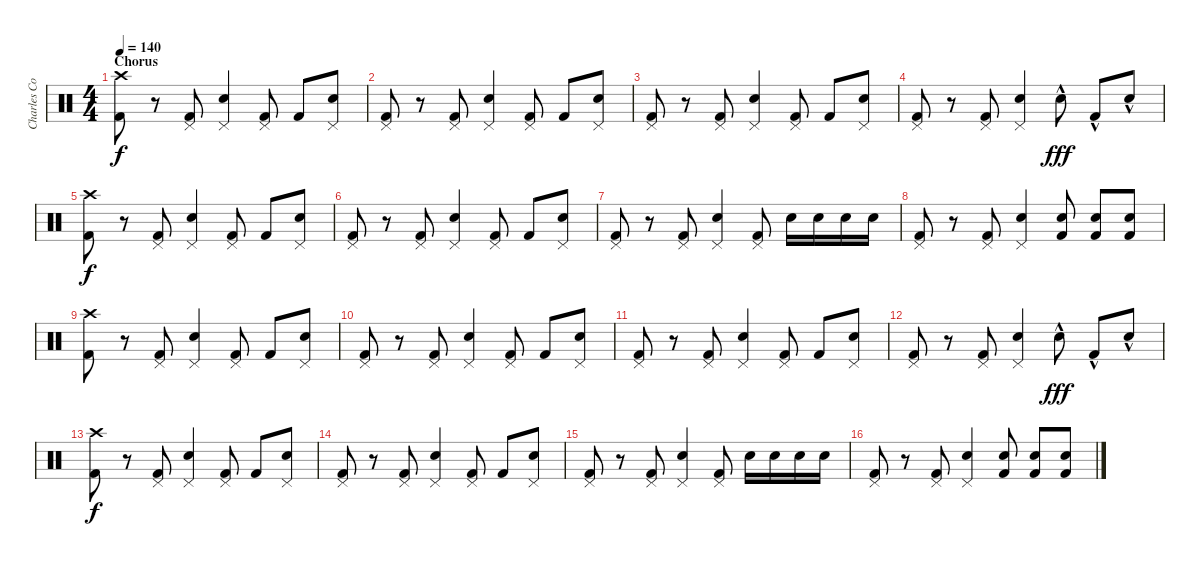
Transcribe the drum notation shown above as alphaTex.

\track ("Charles Comeau" "Charles Co") {instrument percussion}
\staff {score}
\articulation defaults
\ts (4 4)
\section ("" "Chorus")
\tempo 140
\clef neutral
\ks c
("Crash high (hit)" "Kick (hit) 2").8{dy f} r.8 ("Pedal Hi-Hat (hit)" "Kick (hit) 2").8 ("Pedal Hi-Hat (hit)" "Snare (hit) 2").4 ("Pedal Hi-Hat (hit)" "Kick (hit) 2").8 "Kick (hit) 2".8 ("Pedal Hi-Hat (hit)" "Snare (hit) 2").8 |
("Pedal Hi-Hat (hit)" "Kick (hit) 2").8 r.8 ("Pedal Hi-Hat (hit)" "Kick (hit) 2").8 ("Pedal Hi-Hat (hit)" "Snare (hit) 2").4 ("Pedal Hi-Hat (hit)" "Kick (hit) 2").8 "Kick (hit) 2".8 ("Pedal Hi-Hat (hit)" "Snare (hit) 2").8 |
("Pedal Hi-Hat (hit)" "Kick (hit) 2").8 r.8 ("Pedal Hi-Hat (hit)" "Kick (hit) 2").8 ("Pedal Hi-Hat (hit)" "Snare (hit) 2").4 ("Pedal Hi-Hat (hit)" "Kick (hit) 2").8 "Kick (hit) 2".8 ("Pedal Hi-Hat (hit)" "Snare (hit) 2").8 |
("Pedal Hi-Hat (hit)" "Kick (hit) 2").8 r.8 ("Pedal Hi-Hat (hit)" "Kick (hit) 2").8 ("Pedal Hi-Hat (hit)" "Snare (hit) 2").4 "Snare (hit) 2"{hac}.8{dy fff} "Kick (hit) 2"{hac}.8 "Snare (hit) 2"{hac}.8 |
("Crash high (hit)" "Kick (hit) 2").8{dy f} r.8 ("Pedal Hi-Hat (hit)" "Kick (hit) 2").8 ("Pedal Hi-Hat (hit)" "Snare (hit) 2").4 ("Pedal Hi-Hat (hit)" "Kick (hit) 2").8 "Kick (hit) 2".8 ("Pedal Hi-Hat (hit)" "Snare (hit) 2").8 |
("Pedal Hi-Hat (hit)" "Kick (hit) 2").8 r.8 ("Pedal Hi-Hat (hit)" "Kick (hit) 2").8 ("Pedal Hi-Hat (hit)" "Snare (hit) 2").4 ("Pedal Hi-Hat (hit)" "Kick (hit) 2").8 "Kick (hit) 2".8 ("Pedal Hi-Hat (hit)" "Snare (hit) 2").8 |
("Pedal Hi-Hat (hit)" "Kick (hit) 2").8 r.8 ("Pedal Hi-Hat (hit)" "Kick (hit) 2").8 ("Pedal Hi-Hat (hit)" "Snare (hit) 2").4 ("Pedal Hi-Hat (hit)" "Kick (hit) 2").8 "Snare (hit) 2".16 "Snare (hit) 2".16 "Snare (hit) 2".16 "Snare (hit) 2".16 |
("Pedal Hi-Hat (hit)" "Kick (hit) 2").8 r.8 ("Pedal Hi-Hat (hit)" "Kick (hit) 2").8 ("Pedal Hi-Hat (hit)" "Snare (hit) 2").4 ("Snare (hit) 2" "Kick (hit) 2").8 ("Snare (hit) 2" "Kick (hit) 2").8 ("Snare (hit) 2" "Kick (hit) 2").8 |
("Crash high (hit)" "Kick (hit) 2").8 r.8 ("Pedal Hi-Hat (hit)" "Kick (hit) 2").8 ("Pedal Hi-Hat (hit)" "Snare (hit) 2").4 ("Pedal Hi-Hat (hit)" "Kick (hit) 2").8 "Kick (hit) 2".8 ("Pedal Hi-Hat (hit)" "Snare (hit) 2").8 |
("Pedal Hi-Hat (hit)" "Kick (hit) 2").8 r.8 ("Pedal Hi-Hat (hit)" "Kick (hit) 2").8 ("Pedal Hi-Hat (hit)" "Snare (hit) 2").4 ("Pedal Hi-Hat (hit)" "Kick (hit) 2").8 "Kick (hit) 2".8 ("Pedal Hi-Hat (hit)" "Snare (hit) 2").8 |
("Pedal Hi-Hat (hit)" "Kick (hit) 2").8 r.8 ("Pedal Hi-Hat (hit)" "Kick (hit) 2").8 ("Pedal Hi-Hat (hit)" "Snare (hit) 2").4 ("Pedal Hi-Hat (hit)" "Kick (hit) 2").8 "Kick (hit) 2".8 ("Pedal Hi-Hat (hit)" "Snare (hit) 2").8 |
("Pedal Hi-Hat (hit)" "Kick (hit) 2").8 r.8 ("Pedal Hi-Hat (hit)" "Kick (hit) 2").8 ("Pedal Hi-Hat (hit)" "Snare (hit) 2").4 "Snare (hit) 2"{hac}.8{dy fff} "Kick (hit) 2"{hac}.8 "Snare (hit) 2"{hac}.8 |
("Crash high (hit)" "Kick (hit) 2").8{dy f} r.8 ("Pedal Hi-Hat (hit)" "Kick (hit) 2").8 ("Pedal Hi-Hat (hit)" "Snare (hit) 2").4 ("Pedal Hi-Hat (hit)" "Kick (hit) 2").8 "Kick (hit) 2".8 ("Pedal Hi-Hat (hit)" "Snare (hit) 2").8 |
("Pedal Hi-Hat (hit)" "Kick (hit) 2").8 r.8 ("Pedal Hi-Hat (hit)" "Kick (hit) 2").8 ("Pedal Hi-Hat (hit)" "Snare (hit) 2").4 ("Pedal Hi-Hat (hit)" "Kick (hit) 2").8 "Kick (hit) 2".8 ("Pedal Hi-Hat (hit)" "Snare (hit) 2").8 |
("Pedal Hi-Hat (hit)" "Kick (hit) 2").8 r.8 ("Pedal Hi-Hat (hit)" "Kick (hit) 2").8 ("Pedal Hi-Hat (hit)" "Snare (hit) 2").4 ("Pedal Hi-Hat (hit)" "Kick (hit) 2").8 "Snare (hit) 2".16 "Snare (hit) 2".16 "Snare (hit) 2".16 "Snare (hit) 2".16 |
("Pedal Hi-Hat (hit)" "Kick (hit) 2").8 r.8 ("Pedal Hi-Hat (hit)" "Kick (hit) 2").8 ("Pedal Hi-Hat (hit)" "Snare (hit) 2").4 ("Snare (hit) 2" "Kick (hit) 2").8 ("Snare (hit) 2" "Kick (hit) 2").8 ("Snare (hit) 2" "Kick (hit) 2").8
